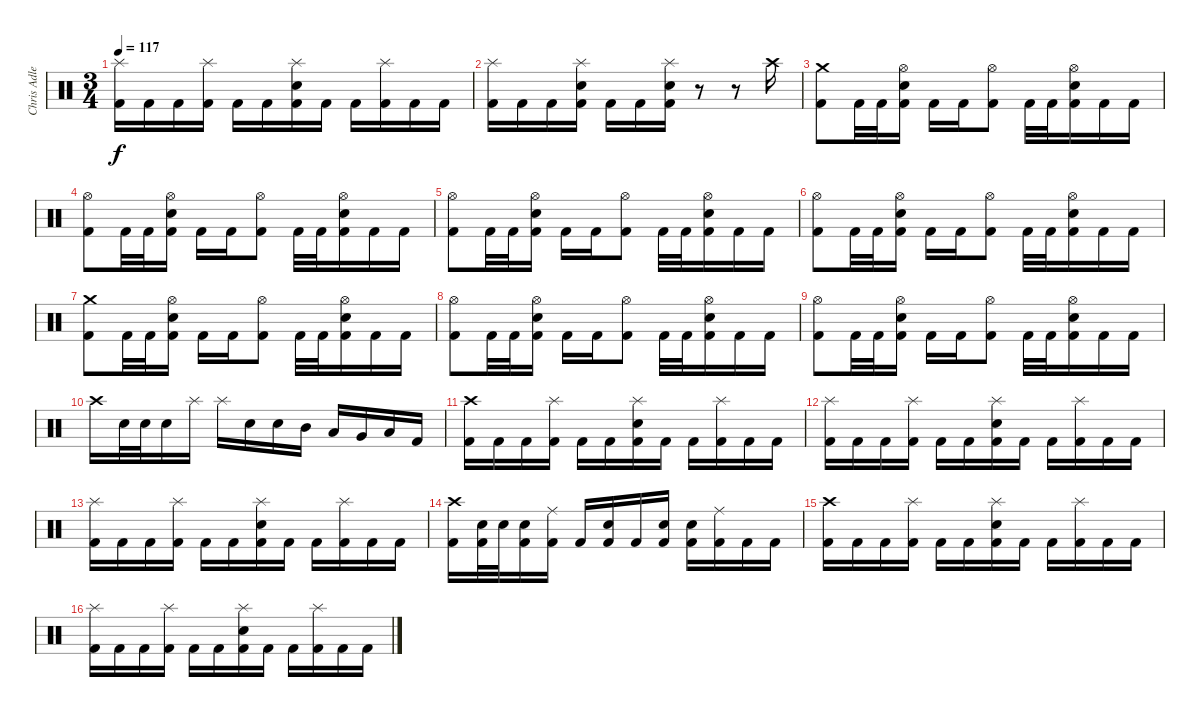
\track ("Chris Adler" "Chris Adle") {instrument percussion}
\staff {score}
\articulation defaults
\ts (3 4)
\tempo 117
\clef neutral
\ks c
("Splash (hit)" "Kick (hit) 2").16{dy f} "Kick (hit) 2".16 "Kick (hit) 2".16 ("Splash (hit)" "Kick (hit) 2").16 "Kick (hit) 2".16 "Kick (hit) 2".16 ("Splash (hit)" "Electric Snare (hit)" "Kick (hit) 2").16 "Kick (hit) 2".16 "Kick (hit) 2".16 ("Splash (hit)" "Kick (hit) 2").16 "Kick (hit) 2".16 "Kick (hit) 2".16 |
("Splash (hit)" "Kick (hit) 2").16 "Kick (hit) 2".16 "Kick (hit) 2".16 ("Splash (hit)" "Electric Snare (hit)" "Kick (hit) 2").16 "Kick (hit) 2".16 "Kick (hit) 2".16 ("Splash (hit)" "Electric Snare (hit)" "Kick (hit) 2").16 r.8 r.8 "Crash high (hit)".16 |
("Crash medium (hit)" "Kick (hit) 2").8 "Kick (hit) 2".32 "Kick (hit) 2".32 ("Hi-Hat (open)" "Electric Snare (hit)" "Kick (hit) 2").16 "Kick (hit) 2".16 "Kick (hit) 2".16 ("Hi-Hat (open)" "Kick (hit) 2").8 "Kick (hit) 2".32 "Kick (hit) 2".32 ("Hi-Hat (open)" "Electric Snare (hit)" "Kick (hit) 2").16 "Kick (hit) 2".16 "Kick (hit) 2".16 |
("Hi-Hat (open)" "Kick (hit) 2").8 "Kick (hit) 2".32 "Kick (hit) 2".32 ("Hi-Hat (open)" "Electric Snare (hit)" "Kick (hit) 2").16 "Kick (hit) 2".16 "Kick (hit) 2".16 ("Hi-Hat (open)" "Kick (hit) 2").8 "Kick (hit) 2".32 "Kick (hit) 2".32 ("Hi-Hat (open)" "Electric Snare (hit)" "Kick (hit) 2").16 "Kick (hit) 2".16 "Kick (hit) 2".16 |
("Hi-Hat (open)" "Kick (hit) 2").8 "Kick (hit) 2".32 "Kick (hit) 2".32 ("Hi-Hat (open)" "Electric Snare (hit)" "Kick (hit) 2").16 "Kick (hit) 2".16 "Kick (hit) 2".16 ("Hi-Hat (open)" "Kick (hit) 2").8 "Kick (hit) 2".32 "Kick (hit) 2".32 ("Hi-Hat (open)" "Electric Snare (hit)" "Kick (hit) 2").16 "Kick (hit) 2".16 "Kick (hit) 2".16 |
("Hi-Hat (open)" "Kick (hit) 2").8 "Kick (hit) 2".32 "Kick (hit) 2".32 ("Hi-Hat (open)" "Electric Snare (hit)" "Kick (hit) 2").16 "Kick (hit) 2".16 "Kick (hit) 2".16 ("Hi-Hat (open)" "Kick (hit) 2").8 "Kick (hit) 2".32 "Kick (hit) 2".32 ("Hi-Hat (open)" "Electric Snare (hit)" "Kick (hit) 2").16 "Kick (hit) 2".16 "Kick (hit) 2".16 |
("Crash medium (hit)" "Kick (hit) 2").8 "Kick (hit) 2".32 "Kick (hit) 2".32 ("Hi-Hat (open)" "Electric Snare (hit)" "Kick (hit) 2").16 "Kick (hit) 2".16 "Kick (hit) 2".16 ("Hi-Hat (open)" "Kick (hit) 2").8 "Kick (hit) 2".32 "Kick (hit) 2".32 ("Hi-Hat (open)" "Electric Snare (hit)" "Kick (hit) 2").16 "Kick (hit) 2".16 "Kick (hit) 2".16 |
("Hi-Hat (open)" "Kick (hit) 2").8 "Kick (hit) 2".32 "Kick (hit) 2".32 ("Hi-Hat (open)" "Electric Snare (hit)" "Kick (hit) 2").16 "Kick (hit) 2".16 "Kick (hit) 2".16 ("Hi-Hat (open)" "Kick (hit) 2").8 "Kick (hit) 2".32 "Kick (hit) 2".32 ("Hi-Hat (open)" "Electric Snare (hit)" "Kick (hit) 2").16 "Kick (hit) 2".16 "Kick (hit) 2".16 |
("Hi-Hat (open)" "Kick (hit) 2").8 "Kick (hit) 2".32 "Kick (hit) 2".32 ("Hi-Hat (open)" "Electric Snare (hit)" "Kick (hit) 2").16 "Kick (hit) 2".16 "Kick (hit) 2".16 ("Hi-Hat (open)" "Kick (hit) 2").8 "Kick (hit) 2".32 "Kick (hit) 2".32 ("Hi-Hat (open)" "Electric Snare (hit)" "Kick (hit) 2").16 "Kick (hit) 2".16 "Kick (hit) 2".16 |
"Crash high (hit)".16 "Electric Snare (hit)".32 "Electric Snare (hit)".32 "Electric Snare (hit)".16 "Splash (hit)".16 "Splash (hit)".16 "Electric Snare (hit)".16 "Electric Snare (hit)".16 "Mid Tom (hit)".16 "Low Tom (hit)".16 "Very Low Tom (hit)".16 "Low Floor Tom (hit)".16 "Kick (hit) 2".16 |
("Crash high (hit)" "Kick (hit) 2").16 "Kick (hit) 2".16 "Kick (hit) 2".16 ("Splash (hit)" "Kick (hit) 2").16 "Kick (hit) 2".16 "Kick (hit) 2".16 ("Splash (hit)" "Electric Snare (hit)" "Kick (hit) 2").16 "Kick (hit) 2".16 "Kick (hit) 2".16 ("Splash (hit)" "Kick (hit) 2").16 "Kick (hit) 2".16 "Kick (hit) 2".16 |
("Splash (hit)" "Kick (hit) 2").16 "Kick (hit) 2".16 "Kick (hit) 2".16 ("Splash (hit)" "Kick (hit) 2").16 "Kick (hit) 2".16 "Kick (hit) 2".16 ("Splash (hit)" "Electric Snare (hit)" "Kick (hit) 2").16 "Kick (hit) 2".16 "Kick (hit) 2".16 ("Splash (hit)" "Kick (hit) 2").16 "Kick (hit) 2".16 "Kick (hit) 2".16 |
("Splash (hit)" "Kick (hit) 2").16 "Kick (hit) 2".16 "Kick (hit) 2".16 ("Splash (hit)" "Kick (hit) 2").16 "Kick (hit) 2".16 "Kick (hit) 2".16 ("Splash (hit)" "Electric Snare (hit)" "Kick (hit) 2").16 "Kick (hit) 2".16 "Kick (hit) 2".16 ("Splash (hit)" "Kick (hit) 2").16 "Kick (hit) 2".16 "Kick (hit) 2".16 |
("Crash high (hit)" "Kick (hit) 2").16 ("Electric Snare (hit)" "Kick (hit) 2").32 "Electric Snare (hit)".32 ("Electric Snare (hit)" "Kick (hit) 2").16 ("Ride (middle)" "Kick (hit) 2").16 "Kick (hit) 2".16 ("Electric Snare (hit)" "Kick (hit) 2").16 "Kick (hit) 2".16 ("Electric Snare (hit)" "Kick (hit) 2").16 ("Electric Snare (hit)" "Kick (hit) 2").16 ("Ride (middle)" "Kick (hit) 2").16 "Kick (hit) 2".16 "Kick (hit) 2".16 |
("Crash high (hit)" "Kick (hit) 2").16 "Kick (hit) 2".16 "Kick (hit) 2".16 ("Splash (hit)" "Kick (hit) 2").16 "Kick (hit) 2".16 "Kick (hit) 2".16 ("Splash (hit)" "Electric Snare (hit)" "Kick (hit) 2").16 "Kick (hit) 2".16 "Kick (hit) 2".16 ("Splash (hit)" "Kick (hit) 2").16 "Kick (hit) 2".16 "Kick (hit) 2".16 |
("Splash (hit)" "Kick (hit) 2").16 "Kick (hit) 2".16 "Kick (hit) 2".16 ("Splash (hit)" "Kick (hit) 2").16 "Kick (hit) 2".16 "Kick (hit) 2".16 ("Splash (hit)" "Electric Snare (hit)" "Kick (hit) 2").16 "Kick (hit) 2".16 "Kick (hit) 2".16 ("Splash (hit)" "Kick (hit) 2").16 "Kick (hit) 2".16 "Kick (hit) 2".16
